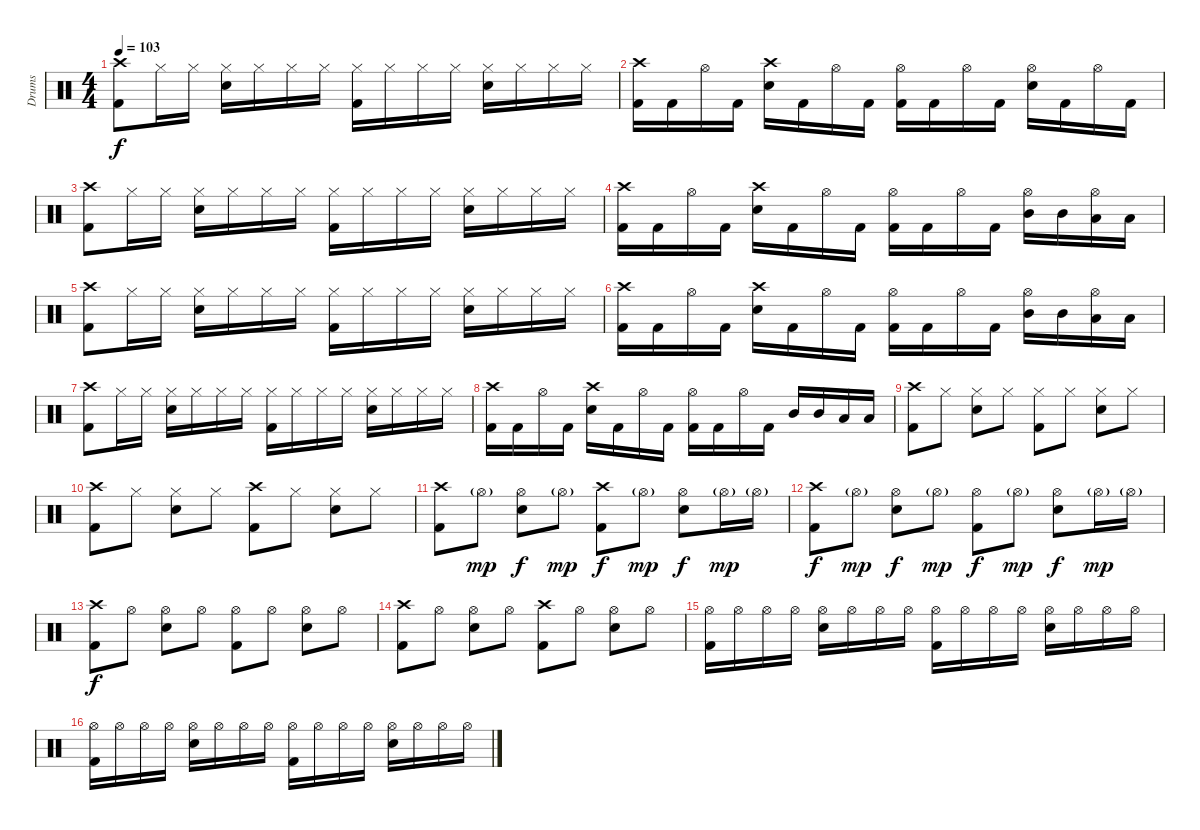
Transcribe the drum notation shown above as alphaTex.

\track ("Drums" "Drums") {instrument percussion}
\staff {score}
\articulation defaults
\ts (4 4)
\tempo 103
\clef neutral
\ks c
("Crash high (hit)" "Kick (hit) 2").8{dy f} "Hi-Hat (closed)".16 "Hi-Hat (closed)".16 ("Hi-Hat (closed)" "Electric Snare (hit)").16 "Hi-Hat (closed)".16 "Hi-Hat (closed)".16 "Hi-Hat (closed)".16 ("Hi-Hat (closed)" "Kick (hit) 2").16 "Hi-Hat (closed)".16 "Hi-Hat (closed)".16 "Hi-Hat (closed)".16 ("Hi-Hat (closed)" "Electric Snare (hit)").16 "Hi-Hat (closed)".16 "Hi-Hat (closed)".16 "Hi-Hat (closed)".16 |
("Crash high (hit)" "Kick (hit) 2").16 "Kick (hit) 2".16 "Hi-Hat (open)".16 "Kick (hit) 2".16 ("Crash high (hit)" "Electric Snare (hit)").16 "Kick (hit) 2".16 "Hi-Hat (open)".16 "Kick (hit) 2".16 ("Hi-Hat (open)" "Kick (hit) 2").16 "Kick (hit) 2".16 "Hi-Hat (open)".16 "Kick (hit) 2".16 ("Hi-Hat (open)" "Electric Snare (hit)").16 "Kick (hit) 2".16 "Hi-Hat (open)".16 "Kick (hit) 2".16 |
("Crash high (hit)" "Kick (hit) 2").8 "Hi-Hat (closed)".16 "Hi-Hat (closed)".16 ("Hi-Hat (closed)" "Electric Snare (hit)").16 "Hi-Hat (closed)".16 "Hi-Hat (closed)".16 "Hi-Hat (closed)".16 ("Hi-Hat (closed)" "Kick (hit) 2").16 "Hi-Hat (closed)".16 "Hi-Hat (closed)".16 "Hi-Hat (closed)".16 ("Hi-Hat (closed)" "Electric Snare (hit)").16 "Hi-Hat (closed)".16 "Hi-Hat (closed)".16 "Hi-Hat (closed)".16 |
("Crash high (hit)" "Kick (hit) 2").16 "Kick (hit) 2".16 "Hi-Hat (open)".16 "Kick (hit) 2".16 ("Crash high (hit)" "Electric Snare (hit)").16 "Kick (hit) 2".16 "Hi-Hat (open)".16 "Kick (hit) 2".16 ("Hi-Hat (open)" "Kick (hit) 2").16 "Kick (hit) 2".16 "Hi-Hat (open)".16 "Kick (hit) 2".16 ("Hi-Hat (open)" "Mid Tom (hit)").16 "Mid Tom (hit)".16 ("Hi-Hat (open)" "Low Tom (hit)").16 "Low Tom (hit)".16 |
("Crash high (hit)" "Kick (hit) 2").8 "Hi-Hat (closed)".16 "Hi-Hat (closed)".16 ("Hi-Hat (closed)" "Electric Snare (hit)").16 "Hi-Hat (closed)".16 "Hi-Hat (closed)".16 "Hi-Hat (closed)".16 ("Hi-Hat (closed)" "Kick (hit) 2").16 "Hi-Hat (closed)".16 "Hi-Hat (closed)".16 "Hi-Hat (closed)".16 ("Hi-Hat (closed)" "Electric Snare (hit)").16 "Hi-Hat (closed)".16 "Hi-Hat (closed)".16 "Hi-Hat (closed)".16 |
("Crash high (hit)" "Kick (hit) 2").16 "Kick (hit) 2".16 "Hi-Hat (open)".16 "Kick (hit) 2".16 ("Crash high (hit)" "Electric Snare (hit)").16 "Kick (hit) 2".16 "Hi-Hat (open)".16 "Kick (hit) 2".16 ("Hi-Hat (open)" "Kick (hit) 2").16 "Kick (hit) 2".16 "Hi-Hat (open)".16 "Kick (hit) 2".16 ("Hi-Hat (open)" "Mid Tom (hit)").16 "Mid Tom (hit)".16 ("Hi-Hat (open)" "Low Tom (hit)").16 "Low Tom (hit)".16 |
("Crash high (hit)" "Kick (hit) 2").8 "Hi-Hat (closed)".16 "Hi-Hat (closed)".16 ("Hi-Hat (closed)" "Electric Snare (hit)").16 "Hi-Hat (closed)".16 "Hi-Hat (closed)".16 "Hi-Hat (closed)".16 ("Hi-Hat (closed)" "Kick (hit) 2").16 "Hi-Hat (closed)".16 "Hi-Hat (closed)".16 "Hi-Hat (closed)".16 ("Hi-Hat (closed)" "Electric Snare (hit)").16 "Hi-Hat (closed)".16 "Hi-Hat (closed)".16 "Hi-Hat (closed)".16 |
("Crash high (hit)" "Kick (hit) 2").16 "Kick (hit) 2".16 "Hi-Hat (open)".16 "Kick (hit) 2".16 ("Crash high (hit)" "Electric Snare (hit)").16 "Kick (hit) 2".16 "Hi-Hat (open)".16 "Kick (hit) 2".16 ("Hi-Hat (open)" "Kick (hit) 2").16 "Kick (hit) 2".16 "Hi-Hat (open)".16 "Kick (hit) 2".16 "Mid Tom (hit)".16 "Mid Tom (hit)".16 "Low Tom (hit)".16 "Low Tom (hit)".16 |
("Crash high (hit)" "Kick (hit) 2").8 "Hi-Hat (closed)".8 ("Hi-Hat (closed)" "Electric Snare (hit)").8 "Hi-Hat (closed)".8 ("Hi-Hat (closed)" "Kick (hit) 2").8 "Hi-Hat (closed)".8 ("Hi-Hat (closed)" "Electric Snare (hit)").8 "Hi-Hat (closed)".8 |
("Crash high (hit)" "Kick (hit) 2").8 "Hi-Hat (closed)".8 ("Hi-Hat (closed)" "Electric Snare (hit)").8 "Hi-Hat (closed)".8 ("Crash high (hit)" "Kick (hit) 2").8 "Hi-Hat (closed)".8 ("Hi-Hat (closed)" "Electric Snare (hit)").8 "Hi-Hat (closed)".8 |
("Crash high (hit)" "Kick (hit) 2").8 "Hi-Hat (open)"{g}.8{dy mp} ("Hi-Hat (open)" "Electric Snare (hit)").8{dy f} "Hi-Hat (open)"{g}.8{dy mp} ("Crash high (hit)" "Kick (hit) 2").8{dy f} "Hi-Hat (open)"{g}.8{dy mp} ("Hi-Hat (open)" "Electric Snare (hit)").8{dy f} "Hi-Hat (open)"{g}.16{dy mp} "Hi-Hat (open)"{g}.16 |
("Crash high (hit)" "Kick (hit) 2").8{dy f} "Hi-Hat (open)"{g}.8{dy mp} ("Hi-Hat (open)" "Electric Snare (hit)").8{dy f} "Hi-Hat (open)"{g}.8{dy mp} ("Hi-Hat (open)" "Kick (hit) 2").8{dy f} "Hi-Hat (open)"{g}.8{dy mp} ("Hi-Hat (open)" "Electric Snare (hit)").8{dy f} "Hi-Hat (open)"{g}.16{dy mp} "Hi-Hat (open)"{g}.16 |
("Crash high (hit)" "Kick (hit) 2").8{dy f} "Hi-Hat (open)".8 ("Hi-Hat (open)" "Electric Snare (hit)").8 "Hi-Hat (open)".8 ("Hi-Hat (open)" "Kick (hit) 2").8 "Hi-Hat (open)".8 ("Hi-Hat (open)" "Electric Snare (hit)").8 "Hi-Hat (open)".8 |
("Crash high (hit)" "Kick (hit) 2").8 "Hi-Hat (open)".8 ("Hi-Hat (open)" "Electric Snare (hit)").8 "Hi-Hat (open)".8 ("Crash high (hit)" "Kick (hit) 2").8 "Hi-Hat (open)".8 ("Hi-Hat (open)" "Electric Snare (hit)").8 "Hi-Hat (open)".8 |
("Hi-Hat (open)" "Kick (hit) 2").16 "Hi-Hat (open)".16 "Hi-Hat (open)".16 "Hi-Hat (open)".16 ("Hi-Hat (open)" "Electric Snare (hit)").16 "Hi-Hat (open)".16 "Hi-Hat (open)".16 "Hi-Hat (open)".16 ("Hi-Hat (open)" "Kick (hit) 2").16 "Hi-Hat (open)".16 "Hi-Hat (open)".16 "Hi-Hat (open)".16 ("Hi-Hat (open)" "Electric Snare (hit)").16 "Hi-Hat (open)".16 "Hi-Hat (open)".16 "Hi-Hat (open)".16 |
("Hi-Hat (open)" "Kick (hit) 2").16 "Hi-Hat (open)".16 "Hi-Hat (open)".16 "Hi-Hat (open)".16 ("Hi-Hat (open)" "Electric Snare (hit)").16 "Hi-Hat (open)".16 "Hi-Hat (open)".16 "Hi-Hat (open)".16 ("Hi-Hat (open)" "Kick (hit) 2").16 "Hi-Hat (open)".16 "Hi-Hat (open)".16 "Hi-Hat (open)".16 ("Hi-Hat (open)" "Electric Snare (hit)").16 "Hi-Hat (open)".16 "Hi-Hat (open)".16 "Hi-Hat (open)".16
